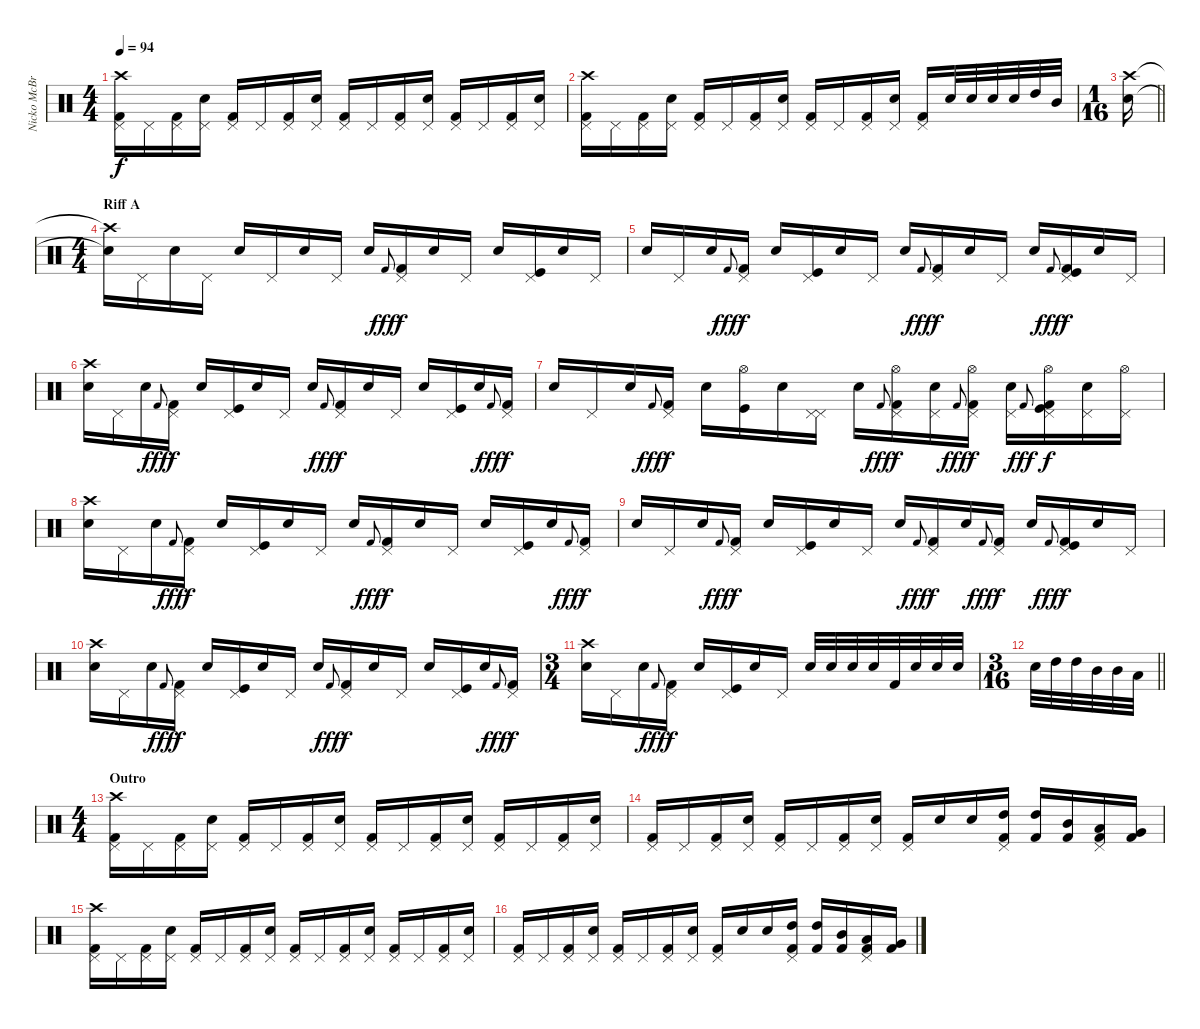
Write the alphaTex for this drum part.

\track ("Nicko McBrain" "Nicko McBr") {instrument percussion}
\staff {score}
\articulation defaults
\ts (4 4)
\tempo 94
\clef neutral
\ks c
("Kick (hit) 2" "Pedal Hi-Hat (hit)" "Crash high (hit)").16{dy f} "Pedal Hi-Hat (hit)".16 ("Kick (hit) 2" "Pedal Hi-Hat (hit)").16 ("Snare (hit) 2" "Pedal Hi-Hat (hit)").16 ("Kick (hit) 2" "Pedal Hi-Hat (hit)").16 "Pedal Hi-Hat (hit)".16 ("Kick (hit) 2" "Pedal Hi-Hat (hit)").16 ("Snare (hit) 2" "Pedal Hi-Hat (hit)").16 ("Kick (hit) 2" "Pedal Hi-Hat (hit)").16 "Pedal Hi-Hat (hit)".16 ("Kick (hit) 2" "Pedal Hi-Hat (hit)").16 ("Snare (hit) 2" "Pedal Hi-Hat (hit)").16 ("Kick (hit) 2" "Pedal Hi-Hat (hit)").16 "Pedal Hi-Hat (hit)".16 ("Kick (hit) 2" "Pedal Hi-Hat (hit)").16 ("Snare (hit) 2" "Pedal Hi-Hat (hit)").16 |
("Kick (hit) 2" "Pedal Hi-Hat (hit)" "Crash high (hit)").16 "Pedal Hi-Hat (hit)".16 ("Kick (hit) 2" "Pedal Hi-Hat (hit)").16 ("Snare (hit) 2" "Pedal Hi-Hat (hit)").16 ("Kick (hit) 2" "Pedal Hi-Hat (hit)").16 "Pedal Hi-Hat (hit)".16 ("Kick (hit) 2" "Pedal Hi-Hat (hit)").16 ("Snare (hit) 2" "Pedal Hi-Hat (hit)").16 ("Kick (hit) 2" "Pedal Hi-Hat (hit)").16 "Pedal Hi-Hat (hit)".16 ("Kick (hit) 2" "Pedal Hi-Hat (hit)").16 ("Snare (hit) 2" "Pedal Hi-Hat (hit)").16 ("Kick (hit) 2" "Pedal Hi-Hat (hit)").16 "Snare (hit) 2".32 "Snare (hit) 2".32 "Snare (hit) 2".32 "Snare (hit) 2".32 "High Tom (hit)".32 "Mid Tom (hit)".32 |
\ts (1 16)
\barLineRight lightlight
("Snare (hit) 2" "Crash high (hit)").16 |
\ts (4 4)
\section ("" "Riff A")
("Snare (hit) 2"{t} "Crash high (hit)"{t}).16 "Pedal Hi-Hat (hit)".16 "Snare (hit) 2".16 "Pedal Hi-Hat (hit)".16 "Snare (hit) 2".16 "Pedal Hi-Hat (hit)".16 "Snare (hit) 2".16 "Pedal Hi-Hat (hit)".16 "Snare (hit) 2".16 "Kick (hit) 2".8{gr onbeat dy fff} ("Pedal Hi-Hat (hit)" "Kick (hit) 2").16{dy f} "Snare (hit) 2".16 "Pedal Hi-Hat (hit)".16 "Snare (hit) 2".16 ("Kick (hit)" "Pedal Hi-Hat (hit)").16 "Snare (hit) 2".16 "Pedal Hi-Hat (hit)".16 |
"Snare (hit) 2".16 "Pedal Hi-Hat (hit)".16 "Snare (hit) 2".16 "Kick (hit) 2".8{gr onbeat dy fff} ("Pedal Hi-Hat (hit)" "Kick (hit) 2").16{dy f} "Snare (hit) 2".16 ("Kick (hit)" "Pedal Hi-Hat (hit)").16 "Snare (hit) 2".16 "Pedal Hi-Hat (hit)".16 "Snare (hit) 2".16 "Kick (hit) 2".8{gr onbeat dy fff} ("Pedal Hi-Hat (hit)" "Kick (hit) 2").16{dy f} "Snare (hit) 2".16 "Pedal Hi-Hat (hit)".16 "Snare (hit) 2".16 "Kick (hit) 2".8{gr onbeat dy fff} ("Kick (hit)" "Pedal Hi-Hat (hit)" "Kick (hit) 2").16{dy f} "Snare (hit) 2".16 "Pedal Hi-Hat (hit)".16 |
("Snare (hit) 2" "Crash high (hit)").16 "Pedal Hi-Hat (hit)".16 "Snare (hit) 2".16 "Kick (hit) 2".8{gr onbeat dy fff} ("Pedal Hi-Hat (hit)" "Kick (hit) 2").16{dy f} "Snare (hit) 2".16 ("Kick (hit)" "Pedal Hi-Hat (hit)").16 "Snare (hit) 2".16 "Pedal Hi-Hat (hit)".16 "Snare (hit) 2".16 "Kick (hit) 2".8{gr onbeat dy fff} ("Pedal Hi-Hat (hit)" "Kick (hit) 2").16{dy f} "Snare (hit) 2".16 "Pedal Hi-Hat (hit)".16 "Snare (hit) 2".16 ("Kick (hit)" "Pedal Hi-Hat (hit)").16 "Snare (hit) 2".16 "Kick (hit) 2".8{gr onbeat dy fff} ("Pedal Hi-Hat (hit)" "Kick (hit) 2").16{dy f} |
"Snare (hit) 2".16 "Pedal Hi-Hat (hit)".16 "Snare (hit) 2".16 "Kick (hit) 2".8{gr onbeat dy fff} ("Pedal Hi-Hat (hit)" "Kick (hit) 2").16{dy f} "Snare (hit) 2".16 ("Kick (hit)" "Hi-Hat (open)").16 "Snare (hit) 2".16 ("Pedal Hi-Hat (hit)" "Pedal Hi-Hat (hit)").16 "Snare (hit) 2".16 "Kick (hit) 2".8{gr onbeat dy fff} ("Pedal Hi-Hat (hit)" "Hi-Hat (open)" "Kick (hit) 2").16{dy f} ("Snare (hit) 2" "Pedal Hi-Hat (hit)").16 "Kick (hit) 2".8{gr onbeat dy fff} ("Pedal Hi-Hat (hit)" "Hi-Hat (open)" "Kick (hit) 2").16{dy f} ("Snare (hit) 2" "Pedal Hi-Hat (hit)").16 "Kick (hit) 2".8{gr onbeat dy fff} ("Kick (hit)" "Pedal Hi-Hat (hit)" "Hi-Hat (open)" "Kick (hit) 2").16{dy f} ("Snare (hit) 2" "Pedal Hi-Hat (hit)").16 ("Pedal Hi-Hat (hit)" "Hi-Hat (open)").16 |
("Snare (hit) 2" "Crash high (hit)").16 "Pedal Hi-Hat (hit)".16 "Snare (hit) 2".16 "Kick (hit) 2".8{gr onbeat dy fff} ("Pedal Hi-Hat (hit)" "Kick (hit) 2").16{dy f} "Snare (hit) 2".16 ("Kick (hit)" "Pedal Hi-Hat (hit)").16 "Snare (hit) 2".16 "Pedal Hi-Hat (hit)".16 "Snare (hit) 2".16 "Kick (hit) 2".8{gr onbeat dy fff} ("Pedal Hi-Hat (hit)" "Kick (hit) 2").16{dy f} "Snare (hit) 2".16 "Pedal Hi-Hat (hit)".16 "Snare (hit) 2".16 ("Kick (hit)" "Pedal Hi-Hat (hit)").16 "Snare (hit) 2".16 "Kick (hit) 2".8{gr onbeat dy fff} ("Pedal Hi-Hat (hit)" "Kick (hit) 2").16{dy f} |
"Snare (hit) 2".16 "Pedal Hi-Hat (hit)".16 "Snare (hit) 2".16 "Kick (hit) 2".8{gr onbeat dy fff} ("Pedal Hi-Hat (hit)" "Kick (hit) 2").16{dy f} "Snare (hit) 2".16 ("Kick (hit)" "Pedal Hi-Hat (hit)").16 "Snare (hit) 2".16 "Pedal Hi-Hat (hit)".16 "Snare (hit) 2".16 "Kick (hit) 2".8{gr onbeat dy fff} ("Pedal Hi-Hat (hit)" "Kick (hit) 2").16{dy f} "Snare (hit) 2".16 "Kick (hit) 2".8{gr onbeat dy fff} ("Pedal Hi-Hat (hit)" "Kick (hit) 2").16{dy f} "Snare (hit) 2".16 "Kick (hit) 2".8{gr onbeat dy fff} ("Kick (hit)" "Pedal Hi-Hat (hit)" "Kick (hit) 2").16{dy f} "Snare (hit) 2".16 "Pedal Hi-Hat (hit)".16 |
("Snare (hit) 2" "Crash high (hit)").16 "Pedal Hi-Hat (hit)".16 "Snare (hit) 2".16 "Kick (hit) 2".8{gr onbeat dy fff} ("Pedal Hi-Hat (hit)" "Kick (hit) 2").16{dy f} "Snare (hit) 2".16 ("Kick (hit)" "Pedal Hi-Hat (hit)").16 "Snare (hit) 2".16 "Pedal Hi-Hat (hit)".16 "Snare (hit) 2".16 "Kick (hit) 2".8{gr onbeat dy fff} ("Pedal Hi-Hat (hit)" "Kick (hit) 2").16{dy f} "Snare (hit) 2".16 "Pedal Hi-Hat (hit)".16 "Snare (hit) 2".16 ("Kick (hit)" "Pedal Hi-Hat (hit)").16 "Snare (hit) 2".16 "Kick (hit) 2".8{gr onbeat dy fff} ("Pedal Hi-Hat (hit)" "Kick (hit) 2").16{dy f} |
\ts (3 4)
("Snare (hit) 2" "Crash high (hit)").16 "Pedal Hi-Hat (hit)".16 "Snare (hit) 2".16 "Kick (hit) 2".8{gr onbeat dy fff} ("Pedal Hi-Hat (hit)" "Kick (hit) 2").16{dy f} "Snare (hit) 2".16 ("Kick (hit)" "Pedal Hi-Hat (hit)").16 "Snare (hit) 2".16 "Pedal Hi-Hat (hit)".16 "Snare (hit) 2".32 "Snare (hit) 2".32 "Snare (hit) 2".32 "Snare (hit) 2".32 "Kick (hit) 2".32 "Snare (hit) 2".32 "Snare (hit) 2".32 "Snare (hit) 2".32 |
\ts (3 16)
\barLineRight lightlight "Snare (hit) 2".32 "High Tom (hit)".32 "High Tom (hit)".32 "Mid Tom (hit)".32 "Mid Tom (hit)".32 "Low Tom (hit)".32
|
\ts (4 4)
\section ("" "Outro")
("Kick (hit) 2" "Pedal Hi-Hat (hit)" "Crash high (hit)").16 "Pedal Hi-Hat (hit)".16 ("Kick (hit) 2" "Pedal Hi-Hat (hit)").16 ("Snare (hit) 2" "Pedal Hi-Hat (hit)").16 ("Kick (hit) 2" "Pedal Hi-Hat (hit)").16 "Pedal Hi-Hat (hit)".16 ("Kick (hit) 2" "Pedal Hi-Hat (hit)").16 ("Snare (hit) 2" "Pedal Hi-Hat (hit)").16 ("Kick (hit) 2" "Pedal Hi-Hat (hit)").16 "Pedal Hi-Hat (hit)".16 ("Kick (hit) 2" "Pedal Hi-Hat (hit)").16 ("Snare (hit) 2" "Pedal Hi-Hat (hit)").16 ("Kick (hit) 2" "Pedal Hi-Hat (hit)").16 "Pedal Hi-Hat (hit)".16 ("Kick (hit) 2" "Pedal Hi-Hat (hit)").16 ("Snare (hit) 2" "Pedal Hi-Hat (hit)").16 |
("Kick (hit) 2" "Pedal Hi-Hat (hit)").16 "Pedal Hi-Hat (hit)".16 ("Kick (hit) 2" "Pedal Hi-Hat (hit)").16 ("Snare (hit) 2" "Pedal Hi-Hat (hit)").16 ("Kick (hit) 2" "Pedal Hi-Hat (hit)").16 "Pedal Hi-Hat (hit)".16 ("Kick (hit) 2" "Pedal Hi-Hat (hit)").16 ("Snare (hit) 2" "Pedal Hi-Hat (hit)").16 ("Kick (hit) 2" "Pedal Hi-Hat (hit)").16 "Snare (hit) 2".16 "Snare (hit) 2".16 ("Kick (hit) 2" "Pedal Hi-Hat (hit)" "High Tom (hit)").16 ("Kick (hit) 2" "High Tom (hit)").16 ("Kick (hit) 2" "Mid Tom (hit)").16 ("Kick (hit) 2" "Pedal Hi-Hat (hit)" "Low Tom (hit)").16 ("Kick (hit) 2" "Very Low Tom (hit)").16 |
("Kick (hit) 2" "Pedal Hi-Hat (hit)" "Crash high (hit)").16 "Pedal Hi-Hat (hit)".16 ("Kick (hit) 2" "Pedal Hi-Hat (hit)").16 ("Snare (hit) 2" "Pedal Hi-Hat (hit)").16 ("Kick (hit) 2" "Pedal Hi-Hat (hit)").16 "Pedal Hi-Hat (hit)".16 ("Kick (hit) 2" "Pedal Hi-Hat (hit)").16 ("Snare (hit) 2" "Pedal Hi-Hat (hit)").16 ("Kick (hit) 2" "Pedal Hi-Hat (hit)").16 "Pedal Hi-Hat (hit)".16 ("Kick (hit) 2" "Pedal Hi-Hat (hit)").16 ("Snare (hit) 2" "Pedal Hi-Hat (hit)").16 ("Kick (hit) 2" "Pedal Hi-Hat (hit)").16 "Pedal Hi-Hat (hit)".16 ("Kick (hit) 2" "Pedal Hi-Hat (hit)").16 ("Snare (hit) 2" "Pedal Hi-Hat (hit)").16 |
("Kick (hit) 2" "Pedal Hi-Hat (hit)").16 "Pedal Hi-Hat (hit)".16 ("Kick (hit) 2" "Pedal Hi-Hat (hit)").16 ("Snare (hit) 2" "Pedal Hi-Hat (hit)").16 ("Kick (hit) 2" "Pedal Hi-Hat (hit)").16 "Pedal Hi-Hat (hit)".16 ("Kick (hit) 2" "Pedal Hi-Hat (hit)").16 ("Snare (hit) 2" "Pedal Hi-Hat (hit)").16 ("Kick (hit) 2" "Pedal Hi-Hat (hit)").16 "Snare (hit) 2".16 "Snare (hit) 2".16 ("Kick (hit) 2" "Pedal Hi-Hat (hit)" "High Tom (hit)").16 ("Kick (hit) 2" "High Tom (hit)").16 ("Kick (hit) 2" "Mid Tom (hit)").16 ("Kick (hit) 2" "Pedal Hi-Hat (hit)" "Low Tom (hit)").16 ("Kick (hit) 2" "Very Low Tom (hit)").16
